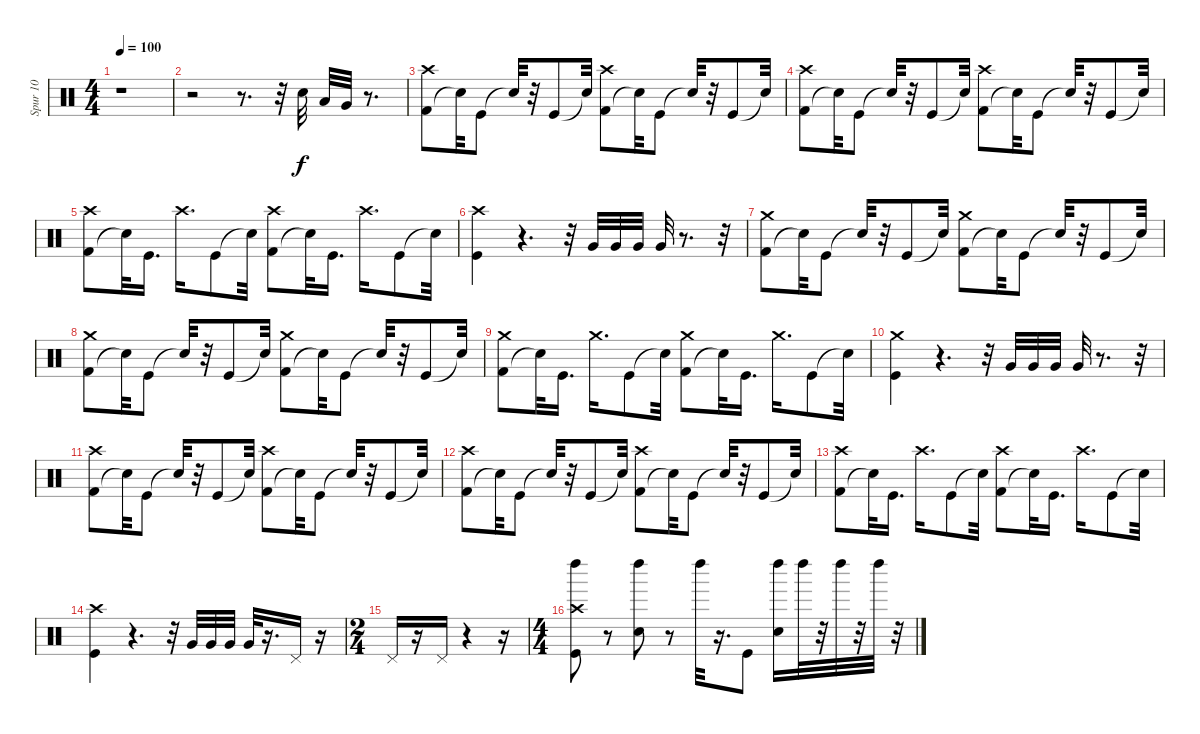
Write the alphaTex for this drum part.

\track ("Spur 10" "Spur 10") {instrument percussion}
\staff {score}
\articulation defaults
\ts (4 4)
\tempo 100
\clef neutral
\ks c
r.1{dy f} |
r.2 r.8{d} r.32 "Electric Snare (hit)".32 "Low Tom (hit)".32 "Very Low Tom (hit)".32 r.8{d} |
("Kick (hit) 2" "Crash high (hit)").8 "Snare (hit)"{t}.32 "Kick (hit)".8 "Snare (hit)"{t}.32 r.32 "Kick (hit)".8 "Snare (hit)"{t}.32 ("Kick (hit) 2" "Crash high (hit)").8 "Snare (hit)"{t}.32 "Kick (hit)".8 "Snare (hit)"{t}.32 r.32 "Kick (hit)".8 "Snare (hit)"{t}.32 |
("Kick (hit) 2" "Crash high (hit)").8 "Snare (hit)"{t}.32 "Kick (hit)".8 "Snare (hit)"{t}.32 r.32 "Kick (hit)".8 "Snare (hit)"{t}.32 ("Kick (hit) 2" "Crash high (hit)").8 "Snare (hit)"{t}.32 "Kick (hit)".8 "Snare (hit)"{t}.32 r.32 "Kick (hit)".8 "Snare (hit)"{t}.32 |
("Kick (hit) 2" "Crash high (hit)").8 "Snare (hit)"{t}.32 "Kick (hit)".16{d} "Crash high (hit)".16{d} "Kick (hit)".8 "Snare (hit)"{t}.32 ("Kick (hit) 2" "Crash high (hit)").8 "Snare (hit)"{t}.32 "Kick (hit)".16{d} "Crash high (hit)".16{d} "Kick (hit)".8 "Snare (hit)"{t}.32 |
("Kick (hit)" "Crash high (hit)").4 r.4{d} r.32 "Very Low Tom (hit)".32 "Very Low Tom (hit)".32 "Very Low Tom (hit)".32 "Very Low Tom (hit)".32 r.8{d} r.32 |
("Kick (hit) 2" "Crash medium (hit)").8 "Snare (hit)"{t}.32 "Kick (hit)".8 "Snare (hit)"{t}.32 r.32 "Kick (hit)".8 "Snare (hit)"{t}.32 ("Kick (hit) 2" "Crash medium (hit)").8 "Snare (hit)"{t}.32 "Kick (hit)".8 "Snare (hit)"{t}.32 r.32 "Kick (hit)".8 "Snare (hit)"{t}.32 |
("Kick (hit) 2" "Crash medium (hit)").8 "Snare (hit)"{t}.32 "Kick (hit)".8 "Snare (hit)"{t}.32 r.32 "Kick (hit)".8 "Snare (hit)"{t}.32 ("Kick (hit) 2" "Crash medium (hit)").8 "Snare (hit)"{t}.32 "Kick (hit)".8 "Snare (hit)"{t}.32 r.32 "Kick (hit)".8 "Snare (hit)"{t}.32 |
("Kick (hit) 2" "Crash medium (hit)").8 "Snare (hit)"{t}.32 "Kick (hit)".16{d} "Crash medium (hit)".16{d} "Kick (hit)".8 "Snare (hit)"{t}.32 ("Kick (hit) 2" "Crash medium (hit)").8 "Snare (hit)"{t}.32 "Kick (hit)".16{d} "Crash medium (hit)".16{d} "Kick (hit)".8 "Snare (hit)"{t}.32 |
("Kick (hit)" "Crash medium (hit)").4 r.4{d} r.32 "Very Low Tom (hit)".32 "Very Low Tom (hit)".32 "Very Low Tom (hit)".32 "Very Low Tom (hit)".32 r.8{d} r.32 |
("Kick (hit) 2" "Crash high (hit)").8 "Snare (hit)"{t}.32 "Kick (hit)".8 "Snare (hit)"{t}.32 r.32 "Kick (hit)".8 "Snare (hit)"{t}.32 ("Kick (hit) 2" "Crash high (hit)").8 "Snare (hit)"{t}.32 "Kick (hit)".8 "Snare (hit)"{t}.32 r.32 "Kick (hit)".8 "Snare (hit)"{t}.32 |
("Kick (hit) 2" "Crash high (hit)").8 "Snare (hit)"{t}.32 "Kick (hit)".8 "Snare (hit)"{t}.32 r.32 "Kick (hit)".8 "Snare (hit)"{t}.32 ("Kick (hit) 2" "Crash high (hit)").8 "Snare (hit)"{t}.32 "Kick (hit)".8 "Snare (hit)"{t}.32 r.32 "Kick (hit)".8 "Snare (hit)"{t}.32 |
("Kick (hit) 2" "Crash high (hit)").8 "Snare (hit)"{t}.32 "Kick (hit)".16{d} "Crash high (hit)".16{d} "Kick (hit)".8 "Snare (hit)"{t}.32 ("Kick (hit) 2" "Crash high (hit)").8 "Snare (hit)"{t}.32 "Kick (hit)".16{d} "Crash high (hit)".16{d} "Kick (hit)".8 "Snare (hit)"{t}.32 |
("Kick (hit)" "Crash high (hit)").4 r.4{d} r.32 "Very Low Tom (hit)".32 "Very Low Tom (hit)".32 "Very Low Tom (hit)".32 "Very Low Tom (hit)".32 r.16{d} "Pedal Hi-Hat (hit)".16 r.16 |
\ts (2 4)
"Pedal Hi-Hat (hit)".16 r.16 "Pedal Hi-Hat (hit)".16 r.4 r.16 |
\ts (4 4)
("Kick (hit)" "Crash high (hit)" "Left Maraca (hit)").8 r.8 ("Snare (hit) 2" "Left Maraca (hit)").8 r.8 "Left Maraca (hit)".32 r.16{d} "Kick (hit)".8 ("Snare (hit) 2" "Left Maraca (hit)").16 "Left Maraca (hit)".32 r.32 "Left Maraca (hit)".32 r.32 "Left Maraca (hit)".32 r.32
